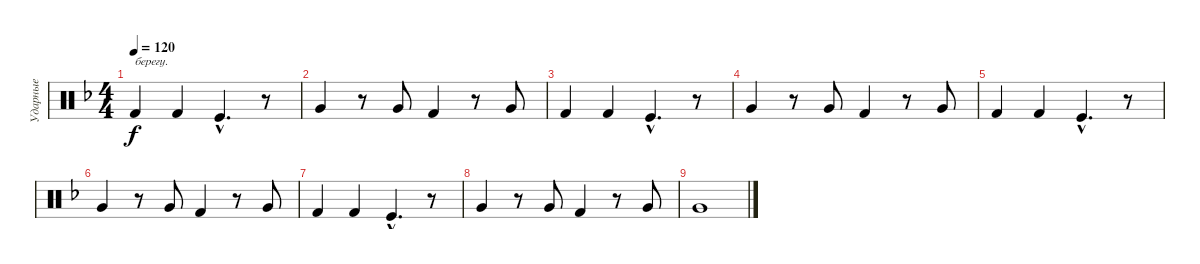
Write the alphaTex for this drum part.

\track ("Ударные" "Ударные") {instrument percussion}
\staff {score}
\articulation defaults
\ts (4 4)
\tempo 120
\clef neutral
\ks f "Kick (hit) 2".4{txt "берегу." dy f} "Kick (hit) 2".4 "Kick (hit)"{hac}.4{d}
r.8 |
"Very Low Tom (hit)".4 r.8 "Very Low Tom (hit)".8 "Kick (hit) 2".4 r.8 "Very Low Tom (hit)".8 |
"Kick (hit) 2".4 "Kick (hit) 2".4 "Kick (hit)"{hac}.4{d} r.8 |
"Very Low Tom (hit)".4 r.8 "Very Low Tom (hit)".8 "Kick (hit) 2".4 r.8 "Very Low Tom (hit)".8 |
"Kick (hit) 2".4 "Kick (hit) 2".4 "Kick (hit)"{hac}.4{d} r.8 |
"Very Low Tom (hit)".4 r.8 "Very Low Tom (hit)".8 "Kick (hit) 2".4 r.8 "Very Low Tom (hit)".8 |
"Kick (hit) 2".4 "Kick (hit) 2".4 "Kick (hit)"{hac}.4{d} r.8 |
"Very Low Tom (hit)".4 r.8 "Very Low Tom (hit)".8 "Kick (hit) 2".4 r.8 "Very Low Tom (hit)".8 |
"Very Low Tom (hit)".1{volume 16}
